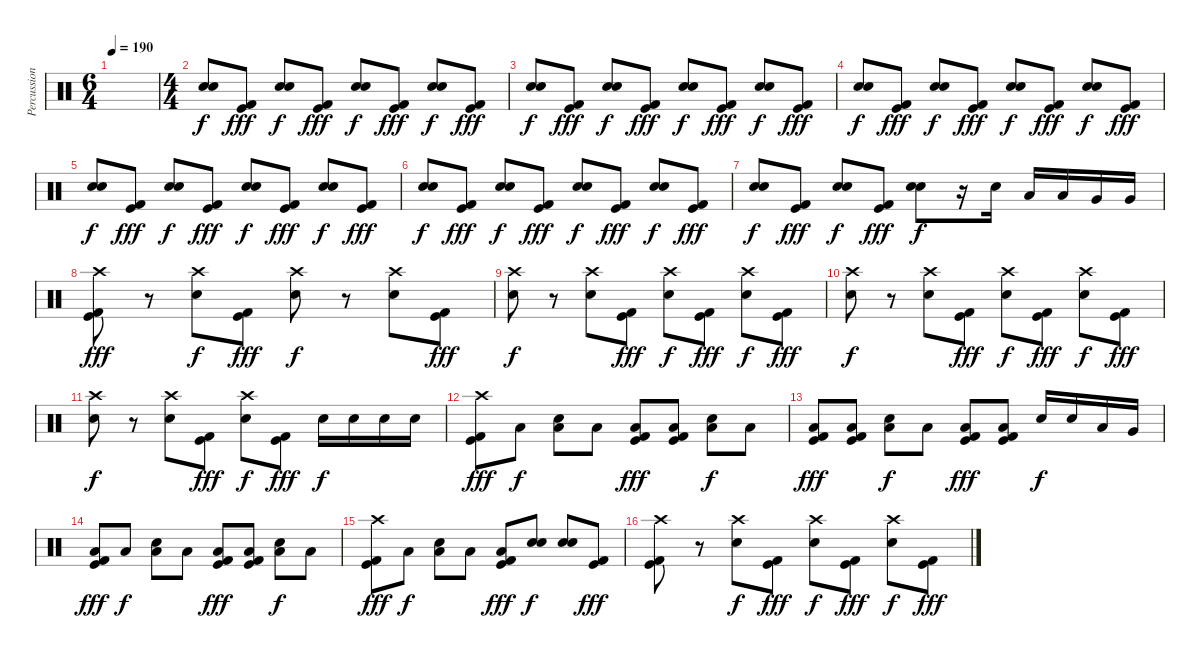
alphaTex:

\track ("Percussion" "Percussion") {instrument percussion}
\staff {score}
\articulation defaults
\ts (6 4)
\tempo 190
\clef neutral
\ks c
|
\ts (4 4)
("Electric Snare (hit)" "Electric Snare (hit)").8{bd 60} ("Kick (hit)" "Kick (hit) 2").8{dy fff} ("Electric Snare (hit)" "Electric Snare (hit)").8{bd 60 dy f} ("Kick (hit)" "Kick (hit) 2").8{dy fff} ("Electric Snare (hit)" "Electric Snare (hit)").8{bd 60 dy f} ("Kick (hit)" "Kick (hit) 2").8{dy fff} ("Electric Snare (hit)" "Electric Snare (hit)").8{bd 60 dy f} ("Kick (hit)" "Kick (hit) 2").8{dy fff} |
("Electric Snare (hit)" "Electric Snare (hit)").8{bd 60 dy f} ("Kick (hit)" "Kick (hit) 2").8{dy fff} ("Electric Snare (hit)" "Electric Snare (hit)").8{bd 60 dy f} ("Kick (hit)" "Kick (hit) 2").8{dy fff} ("Electric Snare (hit)" "Electric Snare (hit)").8{bd 60 dy f} ("Kick (hit)" "Kick (hit) 2").8{dy fff} ("Electric Snare (hit)" "Electric Snare (hit)").8{bd 60 dy f} ("Kick (hit)" "Kick (hit) 2").8{dy fff} |
("Electric Snare (hit)" "Electric Snare (hit)").8{bd 60 dy f} ("Kick (hit)" "Kick (hit) 2").8{dy fff} ("Electric Snare (hit)" "Electric Snare (hit)").8{bd 60 dy f} ("Kick (hit)" "Kick (hit) 2").8{dy fff} ("Electric Snare (hit)" "Electric Snare (hit)").8{bd 60 dy f} ("Kick (hit)" "Kick (hit) 2").8{dy fff} ("Electric Snare (hit)" "Electric Snare (hit)").8{bd 60 dy f} ("Kick (hit)" "Kick (hit) 2").8{dy fff} |
("Electric Snare (hit)" "Electric Snare (hit)").8{bd 60 dy f} ("Kick (hit)" "Kick (hit) 2").8{dy fff} ("Electric Snare (hit)" "Electric Snare (hit)").8{bd 60 dy f} ("Kick (hit)" "Kick (hit) 2").8{dy fff} ("Electric Snare (hit)" "Electric Snare (hit)").8{bd 60 dy f} ("Kick (hit)" "Kick (hit) 2").8{dy fff} ("Electric Snare (hit)" "Electric Snare (hit)").8{bd 60 dy f} ("Kick (hit)" "Kick (hit) 2").8{dy fff} |
("Electric Snare (hit)" "Electric Snare (hit)").8{bd 60 dy f} ("Kick (hit)" "Kick (hit) 2").8{dy fff} ("Electric Snare (hit)" "Electric Snare (hit)").8{bd 60 dy f} ("Kick (hit)" "Kick (hit) 2").8{dy fff} ("Electric Snare (hit)" "Electric Snare (hit)").8{bd 60 dy f} ("Kick (hit)" "Kick (hit) 2").8{dy fff} ("Electric Snare (hit)" "Electric Snare (hit)").8{bd 60 dy f} ("Kick (hit)" "Kick (hit) 2").8{dy fff} |
("Electric Snare (hit)" "Electric Snare (hit)").8{bd 60 dy f} ("Kick (hit)" "Kick (hit) 2").8{dy fff} ("Electric Snare (hit)" "Electric Snare (hit)").8{bd 60 dy f} ("Kick (hit)" "Kick (hit) 2").8{dy fff} ("Electric Snare (hit)" "Electric Snare (hit)").8{bd 60 dy f} r.16 "Electric Snare (hit)".16 "Low Tom (hit)".16 "Low Tom (hit)".16 "Very Low Tom (hit)".16 "Very Low Tom (hit)".16 |
("Crash high (hit)" "Kick (hit)" "Kick (hit) 2").8{dy fff} r.8 ("Crash high (hit)" "Electric Snare (hit)").8{dy f} ("Kick (hit)" "Kick (hit) 2").8{dy fff} ("Crash high (hit)" "Electric Snare (hit)").8{dy f} r.8 ("Crash high (hit)" "Electric Snare (hit)").8 ("Kick (hit)" "Kick (hit) 2").8{dy fff} |
("Crash high (hit)" "Electric Snare (hit)").8{dy f} r.8 ("Crash high (hit)" "Electric Snare (hit)").8 ("Kick (hit)" "Kick (hit) 2").8{dy fff} ("Crash high (hit)" "Electric Snare (hit)").8{dy f} ("Kick (hit)" "Kick (hit) 2").8{dy fff} ("Crash high (hit)" "Electric Snare (hit)").8{dy f} ("Kick (hit)" "Kick (hit) 2").8{dy fff} |
("Crash high (hit)" "Electric Snare (hit)").8{dy f} r.8 ("Crash high (hit)" "Electric Snare (hit)").8 ("Kick (hit)" "Kick (hit) 2").8{dy fff} ("Crash high (hit)" "Electric Snare (hit)").8{dy f} ("Kick (hit)" "Kick (hit) 2").8{dy fff} ("Crash high (hit)" "Electric Snare (hit)").8{dy f} ("Kick (hit)" "Kick (hit) 2").8{dy fff} |
("Crash high (hit)" "Electric Snare (hit)").8{dy f} r.8 ("Crash high (hit)" "Electric Snare (hit)").8 ("Kick (hit)" "Kick (hit) 2").8{dy fff} ("Crash high (hit)" "Electric Snare (hit)").8{dy f} ("Kick (hit)" "Kick (hit) 2").8{dy fff} "Electric Snare (hit)".16{dy f} "Electric Snare (hit)".16 "Electric Snare (hit)".16 "Electric Snare (hit)".16 |
("Crash high (hit)" "Kick (hit)" "Kick (hit) 2").8{dy fff} "Low Floor Tom (hit)".8{dy f} ("Low Floor Tom (hit)" "Electric Snare (hit)").8 "Low Floor Tom (hit)".8 ("Low Floor Tom (hit)" "Kick (hit)" "Kick (hit) 2").8{dy fff} ("Low Floor Tom (hit)" "Kick (hit)" "Kick (hit) 2").8 ("Low Floor Tom (hit)" "Electric Snare (hit)").8{dy f} "Low Floor Tom (hit)".8 |
("Low Floor Tom (hit)" "Kick (hit)" "Kick (hit) 2").8{dy fff} ("Low Floor Tom (hit)" "Kick (hit)" "Kick (hit) 2").8 ("Low Floor Tom (hit)" "Electric Snare (hit)").8{dy f} "Low Floor Tom (hit)".8 ("Low Floor Tom (hit)" "Kick (hit)" "Kick (hit) 2").8{dy fff} ("Low Floor Tom (hit)" "Kick (hit)" "Kick (hit) 2").8 "Electric Snare (hit)".16{dy f} "Electric Snare (hit)".16 "Low Tom (hit)".16 "Very Low Tom (hit)".16 |
("Low Floor Tom (hit)" "Kick (hit)" "Kick (hit) 2").8{dy fff} "Low Floor Tom (hit)".8{dy f} ("Low Floor Tom (hit)" "Electric Snare (hit)").8 "Low Floor Tom (hit)".8 ("Low Floor Tom (hit)" "Kick (hit)" "Kick (hit) 2").8{dy fff} ("Low Floor Tom (hit)" "Kick (hit)" "Kick (hit) 2").8 ("Low Floor Tom (hit)" "Electric Snare (hit)").8{dy f} "Low Floor Tom (hit)".8 |
("Crash high (hit)" "Kick (hit)" "Kick (hit) 2").8{dy fff} "Low Floor Tom (hit)".8{dy f} ("Low Floor Tom (hit)" "Electric Snare (hit)").8 "Low Floor Tom (hit)".8 ("Low Floor Tom (hit)" "Kick (hit)" "Kick (hit) 2").8{dy fff} ("Electric Snare (hit)" "Electric Snare (hit)").8{bu 60 dy f} ("Electric Snare (hit)" "Electric Snare (hit)").8{bu 60} ("Kick (hit)" "Kick (hit) 2").8{dy fff} |
("Crash high (hit)" "Kick (hit)" "Kick (hit) 2").8 r.8 ("Crash high (hit)" "Electric Snare (hit)").8{dy f} ("Kick (hit)" "Kick (hit) 2").8{dy fff} ("Crash high (hit)" "Electric Snare (hit)").8{dy f} ("Kick (hit)" "Kick (hit) 2").8{dy fff} ("Crash high (hit)" "Electric Snare (hit)").8{dy f} ("Kick (hit)" "Kick (hit) 2").8{dy fff}
